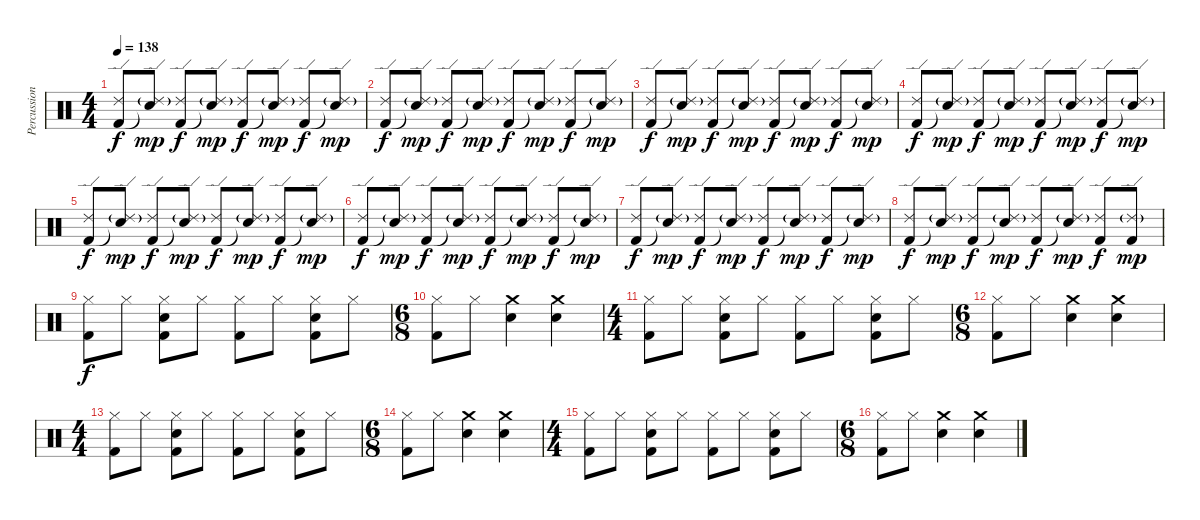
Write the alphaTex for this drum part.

\track ("Percussion" "Percussion") {instrument percussion}
\staff {score}
\articulation defaults
\ts (4 4)
\tempo 138
\clef neutral
\ks c
("Ride (edge) 2" "Kick (hit) 2").8{dy f} ("Ride (edge) 2"{g} "Snare (hit)"{t}).8{dy mp} ("Ride (edge) 2" "Kick (hit) 2").8{dy f} ("Ride (edge) 2"{g} "Snare (hit)"{t}).8{dy mp} ("Ride (edge) 2" "Kick (hit) 2").8{dy f} ("Ride (edge) 2"{g} "Snare (hit)"{t}).8{dy mp} ("Ride (edge) 2" "Kick (hit) 2").8{dy f} ("Ride (edge) 2"{g} "Snare (hit)"{t}).8{dy mp} |
("Ride (edge) 2" "Kick (hit) 2").8{dy f} ("Ride (edge) 2"{g} "Snare (hit)"{t}).8{dy mp} ("Ride (edge) 2" "Kick (hit) 2").8{dy f} ("Ride (edge) 2"{g} "Snare (hit)"{t}).8{dy mp} ("Ride (edge) 2" "Kick (hit) 2").8{dy f} ("Ride (edge) 2"{g} "Snare (hit)"{t}).8{dy mp} ("Ride (edge) 2" "Kick (hit) 2").8{dy f} ("Ride (edge) 2"{g} "Snare (hit)"{t}).8{dy mp} |
("Ride (edge) 2" "Kick (hit) 2").8{dy f} ("Ride (edge) 2"{g} "Snare (hit)"{t}).8{dy mp} ("Ride (edge) 2" "Kick (hit) 2").8{dy f} ("Ride (edge) 2"{g} "Snare (hit)"{t}).8{dy mp} ("Ride (edge) 2" "Kick (hit) 2").8{dy f} ("Ride (edge) 2"{g} "Snare (hit)"{t}).8{dy mp} ("Ride (edge) 2" "Kick (hit) 2").8{dy f} ("Ride (edge) 2"{g} "Snare (hit)"{t}).8{dy mp} |
("Ride (edge) 2" "Kick (hit) 2").8{dy f} ("Ride (edge) 2"{g} "Snare (hit)"{t}).8{dy mp} ("Ride (edge) 2" "Kick (hit) 2").8{dy f} ("Ride (edge) 2"{g} "Snare (hit)"{t}).8{dy mp} ("Ride (edge) 2" "Kick (hit) 2").8{dy f} ("Ride (edge) 2"{g} "Snare (hit)"{t}).8{dy mp} ("Ride (edge) 2" "Kick (hit) 2").8{dy f} ("Ride (edge) 2"{g} "Snare (hit)"{t}).8{dy mp} |
("Ride (edge) 2" "Kick (hit) 2").8{dy f} ("Ride (edge) 2"{g} "Snare (hit)"{t}).8{dy mp} ("Ride (edge) 2" "Kick (hit) 2").8{dy f} ("Ride (edge) 2"{g} "Snare (hit)"{t}).8{dy mp} ("Ride (edge) 2" "Kick (hit) 2").8{dy f} ("Ride (edge) 2"{g} "Snare (hit)"{t}).8{dy mp} ("Ride (edge) 2" "Kick (hit) 2").8{dy f} ("Ride (edge) 2"{g} "Snare (hit)"{t}).8{dy mp} |
("Ride (edge) 2" "Kick (hit) 2").8{dy f} ("Ride (edge) 2"{g} "Snare (hit)"{t}).8{dy mp} ("Ride (edge) 2" "Kick (hit) 2").8{dy f} ("Ride (edge) 2"{g} "Snare (hit)"{t}).8{dy mp} ("Ride (edge) 2" "Kick (hit) 2").8{dy f} ("Ride (edge) 2"{g} "Snare (hit)"{t}).8{dy mp} ("Ride (edge) 2" "Kick (hit) 2").8{dy f} ("Ride (edge) 2"{g} "Snare (hit)"{t}).8{dy mp} |
("Ride (edge) 2" "Kick (hit) 2").8{dy f} ("Ride (edge) 2"{g} "Snare (hit)"{t}).8{dy mp} ("Ride (edge) 2" "Kick (hit) 2").8{dy f} ("Ride (edge) 2"{g} "Snare (hit)"{t}).8{dy mp} ("Ride (edge) 2" "Kick (hit) 2").8{dy f} ("Ride (edge) 2"{g} "Snare (hit)"{t}).8{dy mp} ("Ride (edge) 2" "Kick (hit) 2").8{dy f} ("Ride (edge) 2"{g} "Snare (hit)"{t}).8{dy mp} |
("Ride (edge) 2" "Kick (hit) 2").8{dy f} ("Ride (edge) 2"{g} "Snare (hit)"{t}).8{dy mp} ("Ride (edge) 2" "Kick (hit) 2").8{dy f} ("Ride (edge) 2"{g} "Snare (hit)"{t}).8{dy mp} ("Ride (edge) 2" "Kick (hit) 2").8{dy f} ("Ride (edge) 2"{g} "Snare (hit)"{t}).8{dy mp} ("Ride (edge) 2" "Kick (hit) 2").8{dy f} ("Ride (edge) 2"{g} "Kick (hit) 2").8{dy mp} |
("Hi-Hat (closed)" "Kick (hit) 2").8{dy f} "Hi-Hat (closed)".8 ("Hi-Hat (closed)" "Snare (hit) 2" "Kick (hit) 2").8 "Hi-Hat (closed)".8 ("Hi-Hat (closed)" "Kick (hit) 2").8 "Hi-Hat (closed)".8 ("Hi-Hat (closed)" "Snare (hit) 2" "Kick (hit) 2").8 "Hi-Hat (closed)".8 |
\ts (6 8)
("Hi-Hat (closed)" "Kick (hit) 2").8 "Hi-Hat (closed)".8 ("Crash medium (hit)" "Snare (hit) 2").4 ("Crash medium (hit)" "Snare (hit) 2").4 |
\ts (4 4)
("Hi-Hat (closed)" "Kick (hit) 2").8 "Hi-Hat (closed)".8 ("Hi-Hat (closed)" "Snare (hit) 2" "Kick (hit) 2").8 "Hi-Hat (closed)".8 ("Hi-Hat (closed)" "Kick (hit) 2").8 "Hi-Hat (closed)".8 ("Hi-Hat (closed)" "Snare (hit) 2" "Kick (hit) 2").8 "Hi-Hat (closed)".8 |
\ts (6 8)
("Hi-Hat (closed)" "Kick (hit) 2").8 "Hi-Hat (closed)".8 ("Crash medium (hit)" "Snare (hit) 2").4 ("Crash medium (hit)" "Snare (hit) 2").4 |
\ts (4 4)
("Hi-Hat (closed)" "Kick (hit) 2").8 "Hi-Hat (closed)".8 ("Hi-Hat (closed)" "Snare (hit) 2" "Kick (hit) 2").8 "Hi-Hat (closed)".8 ("Hi-Hat (closed)" "Kick (hit) 2").8 "Hi-Hat (closed)".8 ("Hi-Hat (closed)" "Snare (hit) 2" "Kick (hit) 2").8 "Hi-Hat (closed)".8 |
\ts (6 8)
("Hi-Hat (closed)" "Kick (hit) 2").8 "Hi-Hat (closed)".8 ("Crash medium (hit)" "Snare (hit) 2").4 ("Crash medium (hit)" "Snare (hit) 2").4 |
\ts (4 4)
("Hi-Hat (closed)" "Kick (hit) 2").8 "Hi-Hat (closed)".8 ("Hi-Hat (closed)" "Snare (hit) 2" "Kick (hit) 2").8 "Hi-Hat (closed)".8 ("Hi-Hat (closed)" "Kick (hit) 2").8 "Hi-Hat (closed)".8 ("Hi-Hat (closed)" "Snare (hit) 2" "Kick (hit) 2").8 "Hi-Hat (closed)".8 |
\ts (6 8)
("Hi-Hat (closed)" "Kick (hit) 2").8 "Hi-Hat (closed)".8 ("Crash medium (hit)" "Snare (hit) 2").4 ("Crash medium (hit)" "Snare (hit) 2").4
